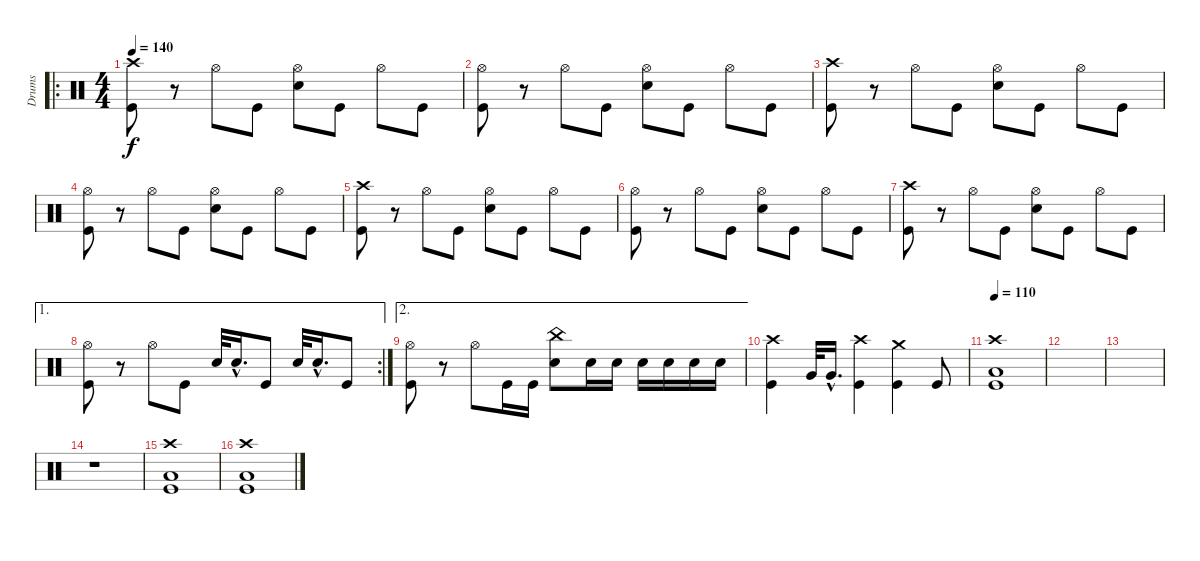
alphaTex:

\track ("Drums" "Drums") {instrument percussion}
\staff {score}
\articulation defaults
\ro
\ts (4 4)
\tempo 140
\clef neutral
\ks c
("Crash high (hit)" "Kick (hit)").8{dy f} r.8 "Hi-Hat (open)".8 "Kick (hit)".8 ("Hi-Hat (open)" "Electric Snare (hit)").8 "Kick (hit)".8 "Hi-Hat (open)".8 "Kick (hit)".8 |
("Hi-Hat (open)" "Kick (hit)").8 r.8 "Hi-Hat (open)".8 "Kick (hit)".8 ("Hi-Hat (open)" "Electric Snare (hit)").8 "Kick (hit)".8 "Hi-Hat (open)".8 "Kick (hit)".8 |
("Crash high (hit)" "Kick (hit)").8 r.8 "Hi-Hat (open)".8 "Kick (hit)".8 ("Hi-Hat (open)" "Electric Snare (hit)").8 "Kick (hit)".8 "Hi-Hat (open)".8 "Kick (hit)".8 |
("Hi-Hat (open)" "Kick (hit)").8 r.8 "Hi-Hat (open)".8 "Kick (hit)".8 ("Hi-Hat (open)" "Electric Snare (hit)").8 "Kick (hit)".8 "Hi-Hat (open)".8 "Kick (hit)".8 |
("Crash high (hit)" "Kick (hit)").8 r.8 "Hi-Hat (open)".8 "Kick (hit)".8 ("Hi-Hat (open)" "Electric Snare (hit)").8 "Kick (hit)".8 "Hi-Hat (open)".8 "Kick (hit)".8 |
("Hi-Hat (open)" "Kick (hit)").8 r.8 "Hi-Hat (open)".8 "Kick (hit)".8 ("Hi-Hat (open)" "Electric Snare (hit)").8 "Kick (hit)".8 "Hi-Hat (open)".8 "Kick (hit)".8 |
("Crash high (hit)" "Kick (hit)").8 r.8 "Hi-Hat (open)".8 "Kick (hit)".8 ("Hi-Hat (open)" "Electric Snare (hit)").8 "Kick (hit)".8 "Hi-Hat (open)".8 "Kick (hit)".8 |
\ae 1
\rc 2
("Hi-Hat (open)" "Kick (hit)").8 r.8 "Hi-Hat (open)".8 "Kick (hit)".8 "Electric Snare (hit)".32 "Electric Snare (hit)"{hac}.16{d} "Kick (hit)".8 "Electric Snare (hit)".32 "Electric Snare (hit)"{hac}.16{d} "Kick (hit)".8 |
\ae 2
("Hi-Hat (open)" "Kick (hit)").8 r.8 "Hi-Hat (open)".8 "Kick (hit)".16 "Kick (hit)".16 ("China (hit)" "Electric Snare (hit)").8 "Electric Snare (hit)".16 "Electric Snare (hit)".16 "Electric Snare (hit)".16 "Electric Snare (hit)".16 "Electric Snare (hit)".16 "Electric Snare (hit)".16 |
("Crash high (hit)" "Kick (hit)").4 "Very Low Tom (hit)".32 "Very Low Tom (hit)"{hac}.16{d} ("Crash high (hit)" "Kick (hit)").4 ("Crash medium (hit)" "Kick (hit)").4 "Kick (hit)".8 |
\tempo 110
("Crash high (hit)" "Low Floor Tom (hit)" "Kick (hit)").1 |
|
|
r.1 |
("Crash high (hit)" "Low Floor Tom (hit)" "Kick (hit)").1 |
("Crash high (hit)" "Low Floor Tom (hit)" "Kick (hit)").1
